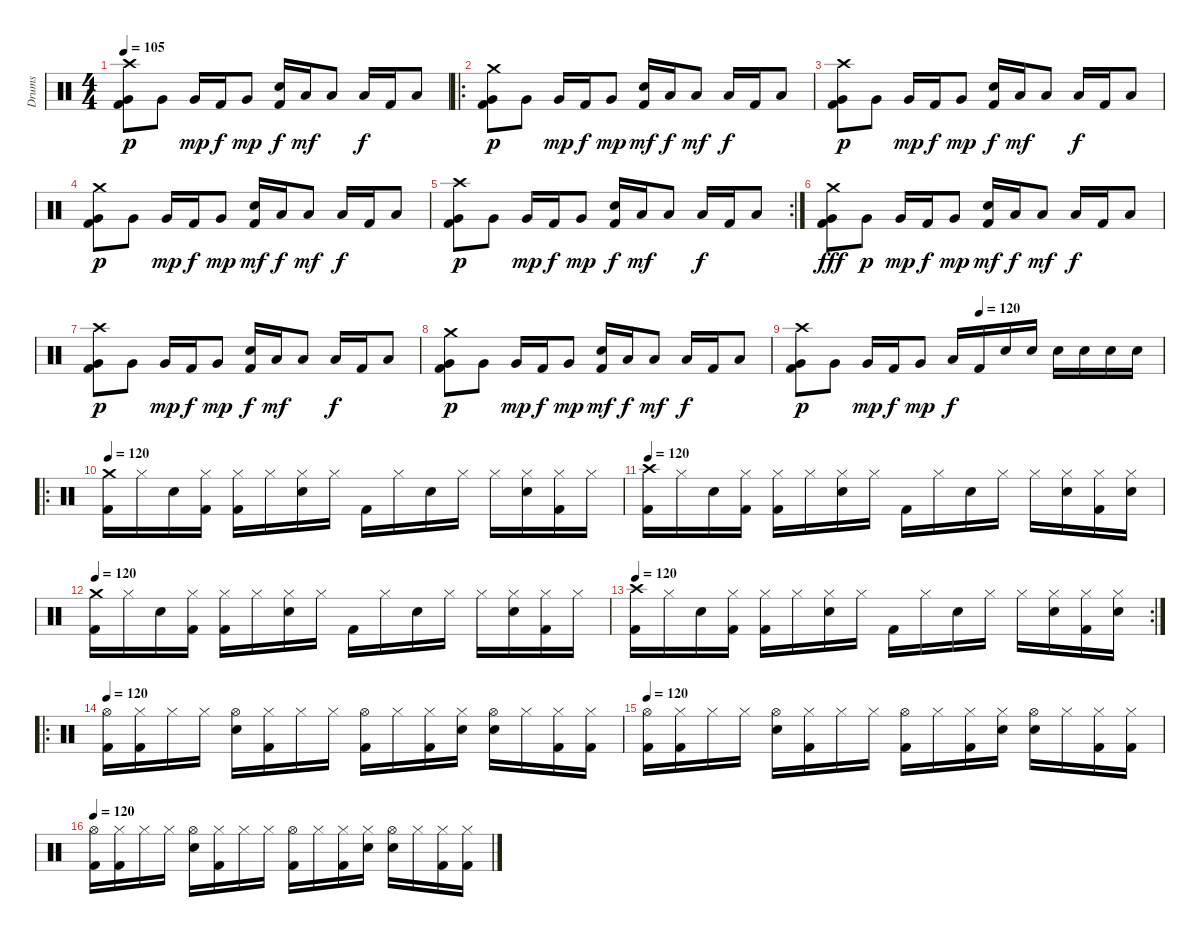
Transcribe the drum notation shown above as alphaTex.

\track ("Drums" "Drums") {instrument percussion}
\staff {score}
\articulation defaults
\ts (4 4)
\tempo 105
\clef neutral
\ks c
("Crash high (hit)" "Very Low Tom (hit)" "Kick (hit) 2").8{dy p} "Very Low Tom (hit)".8 "Very Low Tom (hit)".16{dy mp} "Kick (hit) 2".16{dy f} "Very Low Tom (hit)".8{dy mp} ("Electric Snare (hit)" "Kick (hit) 2").16{dy f} "Low Tom (hit)".16{dy mf} "Low Tom (hit)".8 "Low Tom (hit)".16{dy f} "Kick (hit) 2".16 "Low Tom (hit)".8 |
\ro
("Crash medium (hit)" "Very Low Tom (hit)" "Kick (hit) 2").8{dy p} "Very Low Tom (hit)".8 "Very Low Tom (hit)".16{dy mp} "Kick (hit) 2".16{dy f} "Very Low Tom (hit)".8{dy mp} ("Electric Snare (hit)" "Kick (hit) 2").16{dy mf} "Low Tom (hit)".16{dy f} "Low Tom (hit)".8{dy mf} "Low Tom (hit)".16{dy f} "Kick (hit) 2".16 "Low Tom (hit)".8 |
("Crash high (hit)" "Very Low Tom (hit)" "Kick (hit) 2").8{dy p} "Very Low Tom (hit)".8 "Very Low Tom (hit)".16{dy mp} "Kick (hit) 2".16{dy f} "Very Low Tom (hit)".8{dy mp} ("Electric Snare (hit)" "Kick (hit) 2").16{dy f} "Low Tom (hit)".16{dy mf} "Low Tom (hit)".8 "Low Tom (hit)".16{dy f} "Kick (hit) 2".16 "Low Tom (hit)".8 |
("Crash medium (hit)" "Very Low Tom (hit)" "Kick (hit) 2").8{dy p} "Very Low Tom (hit)".8 "Very Low Tom (hit)".16{dy mp} "Kick (hit) 2".16{dy f} "Very Low Tom (hit)".8{dy mp} ("Electric Snare (hit)" "Kick (hit) 2").16{dy mf} "Low Tom (hit)".16{dy f} "Low Tom (hit)".8{dy mf} "Low Tom (hit)".16{dy f} "Kick (hit) 2".16 "Low Tom (hit)".8 |
\rc 2
("Crash high (hit)" "Very Low Tom (hit)" "Kick (hit) 2").8{dy p} "Very Low Tom (hit)".8 "Very Low Tom (hit)".16{dy mp} "Kick (hit) 2".16{dy f} "Very Low Tom (hit)".8{dy mp} ("Electric Snare (hit)" "Kick (hit) 2").16{dy f} "Low Tom (hit)".16{dy mf} "Low Tom (hit)".8 "Low Tom (hit)".16{dy f} "Kick (hit) 2".16 "Low Tom (hit)".8 |
("Crash medium (hit)" "Very Low Tom (hit)" "Kick (hit) 2").8{dy fff} "Very Low Tom (hit)".8{dy p} "Very Low Tom (hit)".16{dy mp} "Kick (hit) 2".16{dy f} "Very Low Tom (hit)".8{dy mp} ("Electric Snare (hit)" "Kick (hit) 2").16{dy mf} "Low Tom (hit)".16{dy f} "Low Tom (hit)".8{dy mf} "Low Tom (hit)".16{dy f} "Kick (hit) 2".16 "Low Tom (hit)".8 |
("Crash high (hit)" "Very Low Tom (hit)" "Kick (hit) 2").8{dy p} "Very Low Tom (hit)".8 "Very Low Tom (hit)".16{dy mp} "Kick (hit) 2".16{dy f} "Very Low Tom (hit)".8{dy mp} ("Electric Snare (hit)" "Kick (hit) 2").16{dy f} "Low Tom (hit)".16{dy mf} "Low Tom (hit)".8 "Low Tom (hit)".16{dy f} "Kick (hit) 2".16 "Low Tom (hit)".8 |
("Crash medium (hit)" "Very Low Tom (hit)" "Kick (hit) 2").8{dy p} "Very Low Tom (hit)".8 "Very Low Tom (hit)".16{dy mp} "Kick (hit) 2".16{dy f} "Very Low Tom (hit)".8{dy mp} ("Electric Snare (hit)" "Kick (hit) 2").16{dy mf} "Low Tom (hit)".16{dy f} "Low Tom (hit)".8{dy mf} "Low Tom (hit)".16{dy f} "Kick (hit) 2".16 "Low Tom (hit)".8 |
\tempo (120 0.5)
("Crash high (hit)" "Very Low Tom (hit)" "Kick (hit) 2").8{dy p} "Very Low Tom (hit)".8 "Very Low Tom (hit)".16{dy mp} "Kick (hit) 2".16{dy f} "Very Low Tom (hit)".8{dy mp} "Low Tom (hit)".16{dy f} "Kick (hit) 2".16 "Electric Snare (hit)".16 "Electric Snare (hit)".16 "Electric Snare (hit)".16 "Electric Snare (hit)".16 "Electric Snare (hit)".16 "Electric Snare (hit)".16 |
\ro
\tempo 120
("Crash medium (hit)" "Kick (hit) 2").16 "Hi-Hat (closed)".16 "Electric Snare (hit)".16 ("Hi-Hat (closed)" "Kick (hit) 2").16 ("Hi-Hat (closed)" "Kick (hit) 2").16 "Hi-Hat (closed)".16 ("Hi-Hat (closed)" "Electric Snare (hit)").16 "Hi-Hat (closed)".16 "Kick (hit) 2".16 "Hi-Hat (closed)".16 "Electric Snare (hit)".16 "Hi-Hat (closed)".16 "Hi-Hat (closed)".16 ("Hi-Hat (closed)" "Electric Snare (hit)").16 ("Hi-Hat (closed)" "Kick (hit) 2").16 "Hi-Hat (closed)".16 |
\tempo 120
("Crash high (hit)" "Kick (hit) 2").16 "Hi-Hat (closed)".16 "Electric Snare (hit)".16 ("Hi-Hat (closed)" "Kick (hit) 2").16 ("Hi-Hat (closed)" "Kick (hit) 2").16 "Hi-Hat (closed)".16 ("Hi-Hat (closed)" "Electric Snare (hit)").16 "Hi-Hat (closed)".16 "Kick (hit) 2".16 "Hi-Hat (closed)".16 "Electric Snare (hit)".16 "Hi-Hat (closed)".16 "Hi-Hat (closed)".16 ("Hi-Hat (closed)" "Electric Snare (hit)").16 ("Hi-Hat (closed)" "Kick (hit) 2").16 ("Hi-Hat (closed)" "Electric Snare (hit)").16 |
\tempo 120
("Crash medium (hit)" "Kick (hit) 2").16 "Hi-Hat (closed)".16 "Electric Snare (hit)".16 ("Hi-Hat (closed)" "Kick (hit) 2").16 ("Hi-Hat (closed)" "Kick (hit) 2").16 "Hi-Hat (closed)".16 ("Hi-Hat (closed)" "Electric Snare (hit)").16 "Hi-Hat (closed)".16 "Kick (hit) 2".16 "Hi-Hat (closed)".16 "Electric Snare (hit)".16 "Hi-Hat (closed)".16 "Hi-Hat (closed)".16 ("Hi-Hat (closed)" "Electric Snare (hit)").16 ("Hi-Hat (closed)" "Kick (hit) 2").16 "Hi-Hat (closed)".16 |
\rc 2
\tempo 120
("Crash high (hit)" "Kick (hit) 2").16 "Hi-Hat (closed)".16 "Electric Snare (hit)".16 ("Hi-Hat (closed)" "Kick (hit) 2").16 ("Hi-Hat (closed)" "Kick (hit) 2").16 "Hi-Hat (closed)".16 ("Hi-Hat (closed)" "Electric Snare (hit)").16 "Hi-Hat (closed)".16 "Kick (hit) 2".16 "Hi-Hat (closed)".16 "Electric Snare (hit)".16 "Hi-Hat (closed)".16 "Hi-Hat (closed)".16 ("Hi-Hat (closed)" "Electric Snare (hit)").16 ("Hi-Hat (closed)" "Kick (hit) 2").16 ("Hi-Hat (closed)" "Electric Snare (hit)").16 |
\ro
\tempo 120
("Hi-Hat (open)" "Kick (hit) 2").16 ("Hi-Hat (closed)" "Kick (hit) 2").16 "Hi-Hat (closed)".16 "Hi-Hat (closed)".16 ("Hi-Hat (open)" "Electric Snare (hit)").16 ("Hi-Hat (closed)" "Kick (hit) 2").16 "Hi-Hat (closed)".16 "Hi-Hat (closed)".16 ("Hi-Hat (open)" "Kick (hit) 2").16 "Hi-Hat (closed)".16 ("Hi-Hat (closed)" "Kick (hit) 2").16 ("Hi-Hat (closed)" "Electric Snare (hit)").16 ("Hi-Hat (open)" "Electric Snare (hit)").16 "Hi-Hat (closed)".16 ("Hi-Hat (closed)" "Kick (hit) 2").16 ("Hi-Hat (closed)" "Kick (hit) 2").16 |
\tempo 120
("Hi-Hat (open)" "Kick (hit) 2").16 ("Hi-Hat (closed)" "Kick (hit) 2").16 "Hi-Hat (closed)".16 "Hi-Hat (closed)".16 ("Hi-Hat (open)" "Electric Snare (hit)").16 ("Hi-Hat (closed)" "Kick (hit) 2").16 "Hi-Hat (closed)".16 "Hi-Hat (closed)".16 ("Hi-Hat (open)" "Kick (hit) 2").16 "Hi-Hat (closed)".16 ("Hi-Hat (closed)" "Kick (hit) 2").16 ("Hi-Hat (closed)" "Electric Snare (hit)").16 ("Hi-Hat (open)" "Electric Snare (hit)").16 "Hi-Hat (closed)".16 ("Hi-Hat (closed)" "Kick (hit) 2").16 ("Hi-Hat (closed)" "Kick (hit) 2").16 |
\tempo 120
("Hi-Hat (open)" "Kick (hit) 2").16 ("Hi-Hat (closed)" "Kick (hit) 2").16 "Hi-Hat (closed)".16 "Hi-Hat (closed)".16 ("Hi-Hat (open)" "Electric Snare (hit)").16 ("Hi-Hat (closed)" "Kick (hit) 2").16 "Hi-Hat (closed)".16 "Hi-Hat (closed)".16 ("Hi-Hat (open)" "Kick (hit) 2").16 "Hi-Hat (closed)".16 ("Hi-Hat (closed)" "Kick (hit) 2").16 ("Hi-Hat (closed)" "Electric Snare (hit)").16 ("Hi-Hat (open)" "Electric Snare (hit)").16 "Hi-Hat (closed)".16 ("Hi-Hat (closed)" "Kick (hit) 2").16 ("Hi-Hat (closed)" "Kick (hit) 2").16
